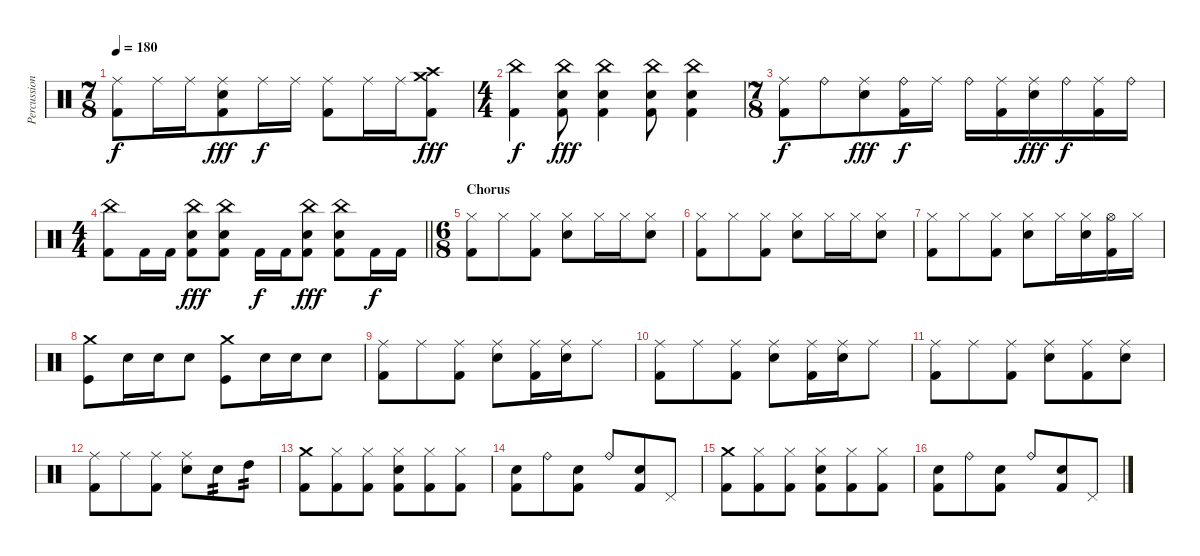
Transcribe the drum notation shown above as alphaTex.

\track ("Percussion" "Percussion") {instrument percussion}
\staff {score}
\articulation defaults
\ts (7 8)
\tempo 180
\clef neutral
\ks c
("Ride (middle)" "Kick (hit) 2").8{dy f} "Ride (middle)".16 "Ride (middle)".16 ("Ride (middle)" "Electric Snare (hit)" "Kick (hit) 2").8{dy fff} "Ride (middle)".16{dy f} "Ride (middle)".16 ("Ride (middle)" "Kick (hit) 2").8 "Ride (middle)".16 "Ride (middle)".16 ("Crash high (hit)" "Crash medium (hit)" "Kick (hit) 2").8{dy fff} |
\ts (4 4)
("China (hit)" "Kick (hit) 2").4{dy f} ("China (hit)" "Electric Snare (hit)" "Kick (hit) 2").8{dy fff} ("China (hit)" "Electric Snare (hit)" "Kick (hit) 2").4 ("China (hit)" "Electric Snare (hit)" "Kick (hit) 2").8 ("China (hit)" "Electric Snare (hit)" "Kick (hit) 2").4 |
\ts (7 8)
("Ride (middle)" "Kick (hit) 2").8{dy f} "Ride (bell)".8 ("Ride (middle)" "Electric Snare (hit)").8{dy fff} ("Ride (bell)" "Kick (hit) 2").16{dy f} "Ride (middle)".16 "Ride (bell)".16 ("Ride (middle)" "Kick (hit) 2").16 ("Ride (middle)" "Electric Snare (hit)").16{dy fff} "Ride (bell)".16{dy f} ("Ride (middle)" "Kick (hit) 2").16 "Ride (bell)".16 |
\ts (4 4)
\barLineRight lightlight
("China (hit)" "Kick (hit) 2").8 "Kick (hit) 2".16 "Kick (hit) 2".16 ("China (hit)" "Electric Snare (hit)" "Kick (hit) 2").8{dy fff} ("China (hit)" "Electric Snare (hit)" "Kick (hit) 2").8 "Kick (hit) 2".16{dy f} "Kick (hit) 2".16 ("China (hit)" "Electric Snare (hit)" "Kick (hit) 2").8{dy fff} ("China (hit)" "Electric Snare (hit)" "Kick (hit) 2").8 "Kick (hit) 2".16{dy f} "Kick (hit) 2".16 |
\ts (6 8)
\section ("" "Chorus")
("Hi-Hat (closed)" "Kick (hit) 2").8 "Hi-Hat (closed)".8 ("Hi-Hat (closed)" "Kick (hit) 2").8 ("Hi-Hat (closed)" "Electric Snare (hit)").8 "Hi-Hat (closed)".16 "Hi-Hat (closed)".16 ("Hi-Hat (closed)" "Electric Snare (hit)").8 |
("Hi-Hat (closed)" "Kick (hit) 2").8 "Hi-Hat (closed)".8 ("Hi-Hat (closed)" "Kick (hit) 2").8 ("Hi-Hat (closed)" "Electric Snare (hit)").8 "Hi-Hat (closed)".16 "Hi-Hat (closed)".16 ("Hi-Hat (closed)" "Electric Snare (hit)").8 |
("Hi-Hat (closed)" "Kick (hit) 2").8 "Hi-Hat (closed)".8 ("Hi-Hat (closed)" "Kick (hit) 2").8 ("Hi-Hat (closed)" "Electric Snare (hit)").8 "Hi-Hat (closed)".16 ("Hi-Hat (closed)" "Electric Snare (hit)").16 ("Hi-Hat (open)" "Kick (hit) 2").16 "Hi-Hat (closed)".16 |
("Crash medium (hit)" "Kick (hit)").8 "Electric Snare (hit)".16 "Electric Snare (hit)".16 "Electric Snare (hit)".8 ("Crash medium (hit)" "Kick (hit)").8 "Electric Snare (hit)".16 "Electric Snare (hit)".16 "Electric Snare (hit)".8 |
("Ride (middle)" "Kick (hit) 2").8 "Ride (middle)".8 ("Ride (middle)" "Kick (hit) 2").8 ("Ride (middle)" "Electric Snare (hit)").8 ("Ride (middle)" "Kick (hit) 2").16 ("Ride (middle)" "Electric Snare (hit)").16 "Ride (middle)".8 |
("Ride (middle)" "Kick (hit) 2").8 "Ride (middle)".8 ("Ride (middle)" "Kick (hit) 2").8 ("Ride (middle)" "Electric Snare (hit)").8 ("Ride (middle)" "Kick (hit) 2").16 ("Ride (middle)" "Electric Snare (hit)").16 "Ride (middle)".8 |
("Ride (middle)" "Kick (hit) 2").8 "Ride (middle)".8 ("Ride (middle)" "Kick (hit) 2").8 ("Ride (middle)" "Electric Snare (hit)").8 ("Ride (middle)" "Kick (hit) 2").8 ("Ride (middle)" "Electric Snare (hit)").8 |
("Ride (middle)" "Kick (hit) 2").8 "Ride (middle)".8 ("Ride (middle)" "Kick (hit) 2").8 ("Ride (middle)" "Electric Snare (hit)").8 "Electric Snare (hit)".8{tp 2} "High Tom (hit)".8{tp 2} |
("Crash medium (hit)" "Kick (hit) 2").8 ("Hi-Hat (closed)" "Kick (hit) 2").8 ("Hi-Hat (closed)" "Kick (hit) 2").8 ("Hi-Hat (closed)" "Electric Snare (hit)" "Kick (hit) 2").8 ("Hi-Hat (closed)" "Kick (hit) 2").8 ("Hi-Hat (closed)" "Kick (hit) 2").8 |
("Hand Clap (hit)" "Kick (hit) 2").8 "Ride (bell)".8 ("Hand Clap (hit)" "Kick (hit) 2").8 "Ride (bell)".8 ("Hand Clap (hit)" "Kick (hit) 2").8 "Pedal Hi-Hat (hit)".8 |
("Crash medium (hit)" "Kick (hit) 2").8 ("Hi-Hat (closed)" "Kick (hit) 2").8 ("Hi-Hat (closed)" "Kick (hit) 2").8 ("Hi-Hat (closed)" "Electric Snare (hit)" "Kick (hit) 2").8 ("Hi-Hat (closed)" "Kick (hit) 2").8 ("Hi-Hat (closed)" "Kick (hit) 2").8 |
("Hand Clap (hit)" "Kick (hit) 2").8 "Ride (bell)".8 ("Hand Clap (hit)" "Kick (hit) 2").8 "Ride (bell)".8 ("Hand Clap (hit)" "Kick (hit) 2").8 "Pedal Hi-Hat (hit)".8
